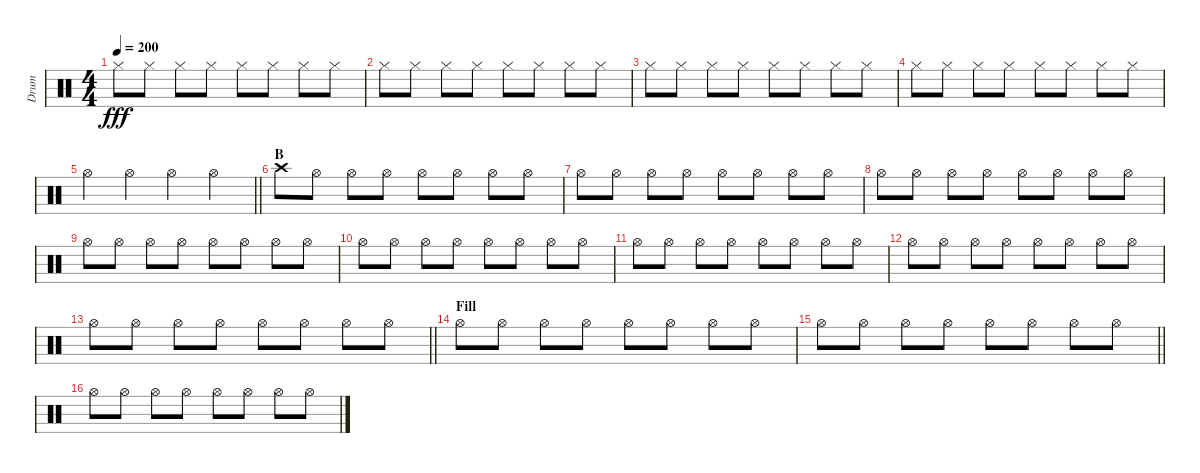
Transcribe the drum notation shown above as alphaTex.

\track ("Drum" "Drum") {instrument percussion}
\staff {score}
\articulation defaults
\ts (4 4)
\tempo 200
\clef neutral
\ks c "Hi-Hat (closed)".8{dy fff} "Hi-Hat (closed)".8 "Hi-Hat (closed)".8 "Hi-Hat (closed)".8 "Hi-Hat (closed)".8 "Hi-Hat (closed)".8 "Hi-Hat (closed)".8 "Hi-Hat (closed)".8
|
"Hi-Hat (closed)".8 "Hi-Hat (closed)".8 "Hi-Hat (closed)".8 "Hi-Hat (closed)".8 "Hi-Hat (closed)".8 "Hi-Hat (closed)".8 "Hi-Hat (closed)".8 "Hi-Hat (closed)".8 |
"Hi-Hat (closed)".8 "Hi-Hat (closed)".8 "Hi-Hat (closed)".8 "Hi-Hat (closed)".8 "Hi-Hat (closed)".8 "Hi-Hat (closed)".8 "Hi-Hat (closed)".8 "Hi-Hat (closed)".8 |
"Hi-Hat (closed)".8 "Hi-Hat (closed)".8 "Hi-Hat (closed)".8 "Hi-Hat (closed)".8 "Hi-Hat (closed)".8 "Hi-Hat (closed)".8 "Hi-Hat (closed)".8 "Hi-Hat (closed)".8 |
\barLineRight lightlight "Hi-Hat (open)".4 "Hi-Hat (open)".4 "Hi-Hat (open)".4 "Hi-Hat (open)".4
|
\section ("" "B")
"Crash high (hit)".8 "Hi-Hat (open)".8 "Hi-Hat (open)".8 "Hi-Hat (open)".8 "Hi-Hat (open)".8 "Hi-Hat (open)".8 "Hi-Hat (open)".8 "Hi-Hat (open)".8 |
"Hi-Hat (open)".8 "Hi-Hat (open)".8 "Hi-Hat (open)".8 "Hi-Hat (open)".8 "Hi-Hat (open)".8 "Hi-Hat (open)".8 "Hi-Hat (open)".8 "Hi-Hat (open)".8 |
"Hi-Hat (open)".8 "Hi-Hat (open)".8 "Hi-Hat (open)".8 "Hi-Hat (open)".8 "Hi-Hat (open)".8 "Hi-Hat (open)".8 "Hi-Hat (open)".8 "Hi-Hat (open)".8 |
"Hi-Hat (open)".8 "Hi-Hat (open)".8 "Hi-Hat (open)".8 "Hi-Hat (open)".8 "Hi-Hat (open)".8 "Hi-Hat (open)".8 "Hi-Hat (open)".8 "Hi-Hat (open)".8 |
"Hi-Hat (open)".8 "Hi-Hat (open)".8 "Hi-Hat (open)".8 "Hi-Hat (open)".8 "Hi-Hat (open)".8 "Hi-Hat (open)".8 "Hi-Hat (open)".8 "Hi-Hat (open)".8 |
"Hi-Hat (open)".8 "Hi-Hat (open)".8 "Hi-Hat (open)".8 "Hi-Hat (open)".8 "Hi-Hat (open)".8 "Hi-Hat (open)".8 "Hi-Hat (open)".8 "Hi-Hat (open)".8 |
"Hi-Hat (open)".8 "Hi-Hat (open)".8 "Hi-Hat (open)".8 "Hi-Hat (open)".8 "Hi-Hat (open)".8 "Hi-Hat (open)".8 "Hi-Hat (open)".8 "Hi-Hat (open)".8 |
\barLineRight lightlight "Hi-Hat (open)".8 "Hi-Hat (open)".8 "Hi-Hat (open)".8 "Hi-Hat (open)".8 "Hi-Hat (open)".8 "Hi-Hat (open)".8 "Hi-Hat (open)".8 "Hi-Hat (open)".8
|
\section ("" "Fill")
"Hi-Hat (open)".8 "Hi-Hat (open)".8 "Hi-Hat (open)".8 "Hi-Hat (open)".8 "Hi-Hat (open)".8 "Hi-Hat (open)".8 "Hi-Hat (open)".8 "Hi-Hat (open)".8 |
\barLineRight lightlight "Hi-Hat (open)".8 "Hi-Hat (open)".8 "Hi-Hat (open)".8 "Hi-Hat (open)".8 "Hi-Hat (open)".8 "Hi-Hat (open)".8 "Hi-Hat (open)".8 "Hi-Hat (open)".8
|
"Hi-Hat (open)".8 "Hi-Hat (open)".8 "Hi-Hat (open)".8 "Hi-Hat (open)".8 "Hi-Hat (open)".8 "Hi-Hat (open)".8 "Hi-Hat (open)".8 "Hi-Hat (open)".8
